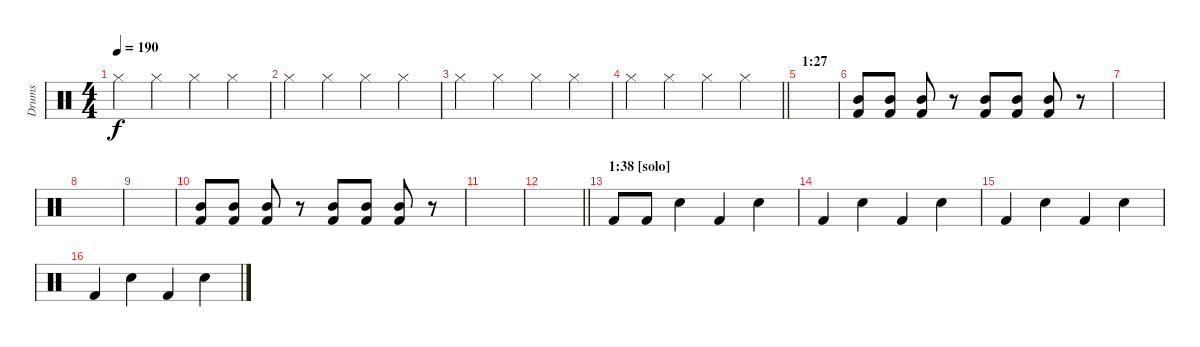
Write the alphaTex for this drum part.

\track ("Drums" "Drums") {instrument percussion}
\staff {score}
\articulation defaults
\ts (4 4)
\tempo 190
\clef neutral
\ks c "Hi-Hat (closed)".4{dy f} "Hi-Hat (closed)".4 "Hi-Hat (closed)".4 "Hi-Hat (closed)".4
|
"Hi-Hat (closed)".4 "Hi-Hat (closed)".4 "Hi-Hat (closed)".4 "Hi-Hat (closed)".4 |
"Hi-Hat (closed)".4 "Hi-Hat (closed)".4 "Hi-Hat (closed)".4 "Hi-Hat (closed)".4 |
\barLineRight lightlight "Hi-Hat (closed)".4 "Hi-Hat (closed)".4 "Hi-Hat (closed)".4 "Hi-Hat (closed)".4
|
\section ("" "1:27")
|
("Mid Tom (hit)" "Kick (hit) 2").8 ("Mid Tom (hit)" "Kick (hit) 2").8 ("Mid Tom (hit)" "Kick (hit) 2").8 r.8 ("Mid Tom (hit)" "Kick (hit) 2").8 ("Mid Tom (hit)" "Kick (hit) 2").8 ("Mid Tom (hit)" "Kick (hit) 2").8 r.8 |
|
|
|
("Mid Tom (hit)" "Kick (hit) 2").8 ("Mid Tom (hit)" "Kick (hit) 2").8 ("Mid Tom (hit)" "Kick (hit) 2").8 r.8 ("Mid Tom (hit)" "Kick (hit) 2").8 ("Mid Tom (hit)" "Kick (hit) 2").8 ("Mid Tom (hit)" "Kick (hit) 2").8 r.8 |
|
\barLineRight lightlight
|
\section ("" "1:38 [solo]")
"Kick (hit) 2".8 "Kick (hit) 2".8 "Electric Snare (hit)".4 "Kick (hit) 2".4 "Electric Snare (hit)".4 |
"Kick (hit) 2".4 "Electric Snare (hit)".4 "Kick (hit) 2".4 "Electric Snare (hit)".4 |
"Kick (hit) 2".4 "Electric Snare (hit)".4 "Kick (hit) 2".4 "Electric Snare (hit)".4 |
"Kick (hit) 2".4 "Electric Snare (hit)".4 "Kick (hit) 2".4 "Electric Snare (hit)".4
